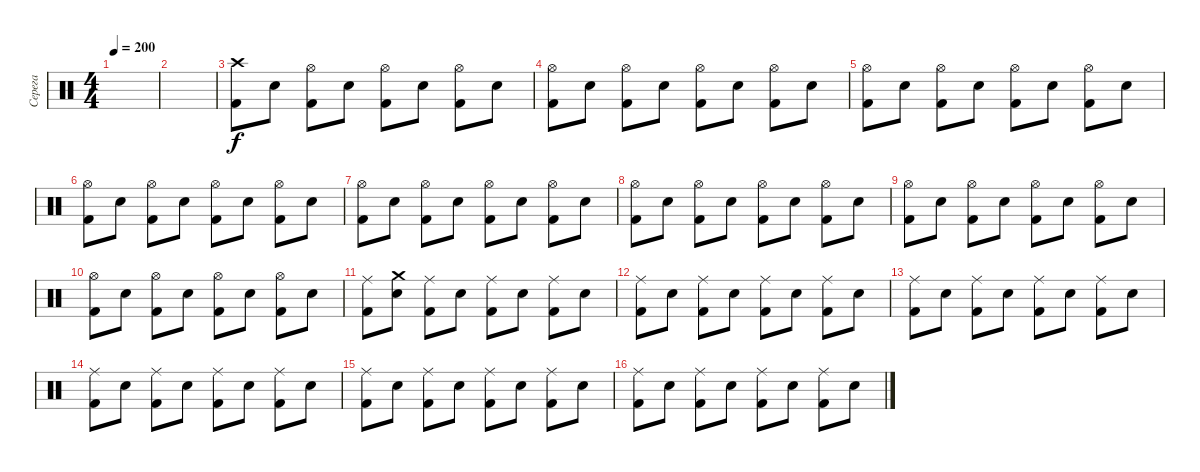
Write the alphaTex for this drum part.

\track ("Серега" "Серега") {instrument percussion}
\staff {score}
\articulation defaults
\ts (4 4)
\tempo 200
\clef neutral
\ks c
|
|
("Crash high (hit)" "Kick (hit) 2").8 "Electric Snare (hit)".8 ("Hi-Hat (open)" "Kick (hit) 2").8 "Electric Snare (hit)".8 ("Hi-Hat (open)" "Kick (hit) 2").8 "Electric Snare (hit)".8 ("Hi-Hat (open)" "Kick (hit) 2").8 "Electric Snare (hit)".8 |
("Hi-Hat (open)" "Kick (hit) 2").8 "Electric Snare (hit)".8 ("Hi-Hat (open)" "Kick (hit) 2").8 "Electric Snare (hit)".8 ("Hi-Hat (open)" "Kick (hit) 2").8 "Electric Snare (hit)".8 ("Hi-Hat (open)" "Kick (hit) 2").8 "Electric Snare (hit)".8 |
("Hi-Hat (open)" "Kick (hit) 2").8 "Electric Snare (hit)".8 ("Hi-Hat (open)" "Kick (hit) 2").8 "Electric Snare (hit)".8 ("Hi-Hat (open)" "Kick (hit) 2").8 "Electric Snare (hit)".8 ("Hi-Hat (open)" "Kick (hit) 2").8 "Electric Snare (hit)".8 |
("Hi-Hat (open)" "Kick (hit) 2").8 "Electric Snare (hit)".8 ("Hi-Hat (open)" "Kick (hit) 2").8 "Electric Snare (hit)".8 ("Hi-Hat (open)" "Kick (hit) 2").8 "Electric Snare (hit)".8 ("Hi-Hat (open)" "Kick (hit) 2").8 "Electric Snare (hit)".8 |
("Hi-Hat (open)" "Kick (hit) 2").8 "Electric Snare (hit)".8 ("Hi-Hat (open)" "Kick (hit) 2").8 "Electric Snare (hit)".8 ("Hi-Hat (open)" "Kick (hit) 2").8 "Electric Snare (hit)".8 ("Hi-Hat (open)" "Kick (hit) 2").8 "Electric Snare (hit)".8 |
("Hi-Hat (open)" "Kick (hit) 2").8 "Electric Snare (hit)".8 ("Hi-Hat (open)" "Kick (hit) 2").8 "Electric Snare (hit)".8 ("Hi-Hat (open)" "Kick (hit) 2").8 "Electric Snare (hit)".8 ("Hi-Hat (open)" "Kick (hit) 2").8 "Electric Snare (hit)".8 |
("Hi-Hat (open)" "Kick (hit) 2").8 "Electric Snare (hit)".8 ("Hi-Hat (open)" "Kick (hit) 2").8 "Electric Snare (hit)".8 ("Hi-Hat (open)" "Kick (hit) 2").8 "Electric Snare (hit)".8 ("Hi-Hat (open)" "Kick (hit) 2").8 "Electric Snare (hit)".8 |
("Hi-Hat (open)" "Kick (hit) 2").8 "Electric Snare (hit)".8 ("Hi-Hat (open)" "Kick (hit) 2").8 "Electric Snare (hit)".8 ("Hi-Hat (open)" "Kick (hit) 2").8 "Electric Snare (hit)".8 ("Hi-Hat (open)" "Kick (hit) 2").8 "Electric Snare (hit)".8 |
("Ride (middle)" "Kick (hit) 2").8 ("Crash medium (hit)" "Electric Snare (hit)").8 ("Ride (middle)" "Kick (hit) 2").8 "Electric Snare (hit)".8 ("Ride (middle)" "Kick (hit) 2").8 "Electric Snare (hit)".8 ("Ride (middle)" "Kick (hit) 2").8 "Electric Snare (hit)".8 |
("Ride (middle)" "Kick (hit) 2").8 "Electric Snare (hit)".8 ("Ride (middle)" "Kick (hit) 2").8 "Electric Snare (hit)".8 ("Ride (middle)" "Kick (hit) 2").8 "Electric Snare (hit)".8 ("Ride (middle)" "Kick (hit) 2").8 "Electric Snare (hit)".8 |
("Ride (middle)" "Kick (hit) 2").8 "Electric Snare (hit)".8 ("Ride (middle)" "Kick (hit) 2").8 "Electric Snare (hit)".8 ("Ride (middle)" "Kick (hit) 2").8 "Electric Snare (hit)".8 ("Ride (middle)" "Kick (hit) 2").8 "Electric Snare (hit)".8 |
("Ride (middle)" "Kick (hit) 2").8 "Electric Snare (hit)".8 ("Ride (middle)" "Kick (hit) 2").8 "Electric Snare (hit)".8 ("Ride (middle)" "Kick (hit) 2").8 "Electric Snare (hit)".8 ("Ride (middle)" "Kick (hit) 2").8 "Electric Snare (hit)".8 |
("Ride (middle)" "Kick (hit) 2").8 "Electric Snare (hit)".8 ("Ride (middle)" "Kick (hit) 2").8 "Electric Snare (hit)".8 ("Ride (middle)" "Kick (hit) 2").8 "Electric Snare (hit)".8 ("Ride (middle)" "Kick (hit) 2").8 "Electric Snare (hit)".8 |
("Ride (middle)" "Kick (hit) 2").8 "Electric Snare (hit)".8 ("Ride (middle)" "Kick (hit) 2").8 "Electric Snare (hit)".8 ("Ride (middle)" "Kick (hit) 2").8 "Electric Snare (hit)".8 ("Ride (middle)" "Kick (hit) 2").8 "Electric Snare (hit)".8
